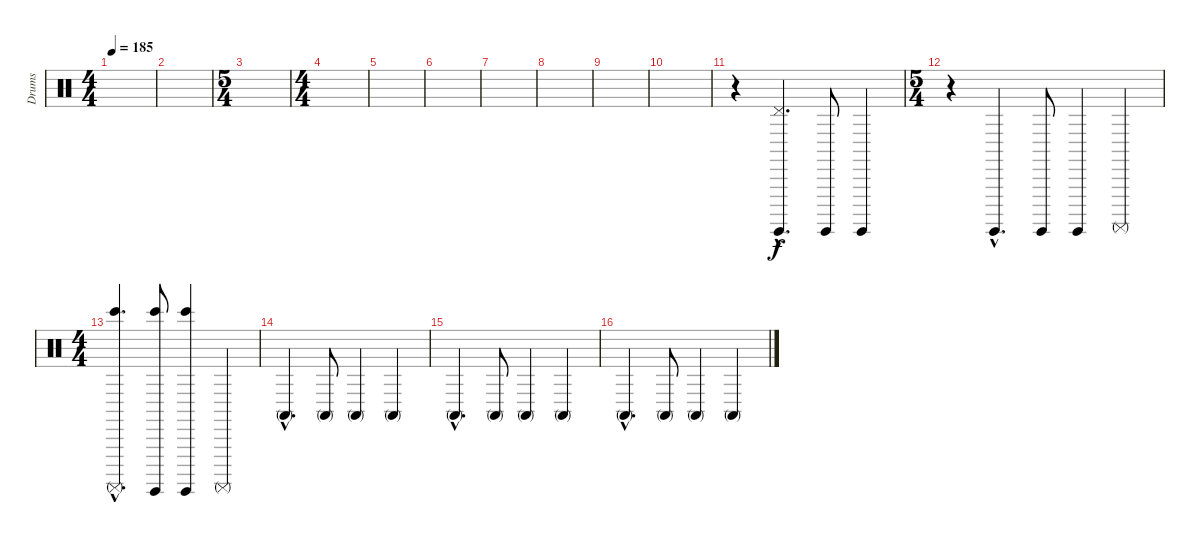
\track ("Drums" "Drums") {instrument percussion}
\staff {score}
\articulation defaults
\ts (4 4)
\tempo 185
\clef neutral
\ks c
|
|
\ts (5 4)
|
\ts (4 4)
|
|
|
|
|
|
|
r.4 ("Surdo (hit)"{hac} "Pedal Hi-Hat (hit)"{hac}).4{d dy f} "Surdo (hit)".8 "Surdo (hit)".4 |
\ts (5 4)
r.4 "Surdo (hit)"{hac}.4{d} "Surdo (hit)".8 "Surdo (hit)".4 "Surdo (mute)".4 |
\ts (4 4)
("Surdo (mute)"{hac} "Bongo High (hit)"{hac}).4{d} ("Surdo (hit)" "Bongo High (hit)").8 ("Surdo (hit)" "Bongo High (hit)").4 "Surdo (mute)".4 |
"Conga high (mute)"{hac}.4{d} "Conga high (mute)".8 "Conga high (mute)".4 "Conga high (mute)".4 |
"Conga high (mute)"{hac}.4{d} "Conga high (mute)".8 "Conga high (mute)".4 "Conga high (mute)".4 |
"Conga high (mute)"{hac}.4{d} "Conga high (mute)".8 "Conga high (mute)".4 "Conga high (mute)".4
